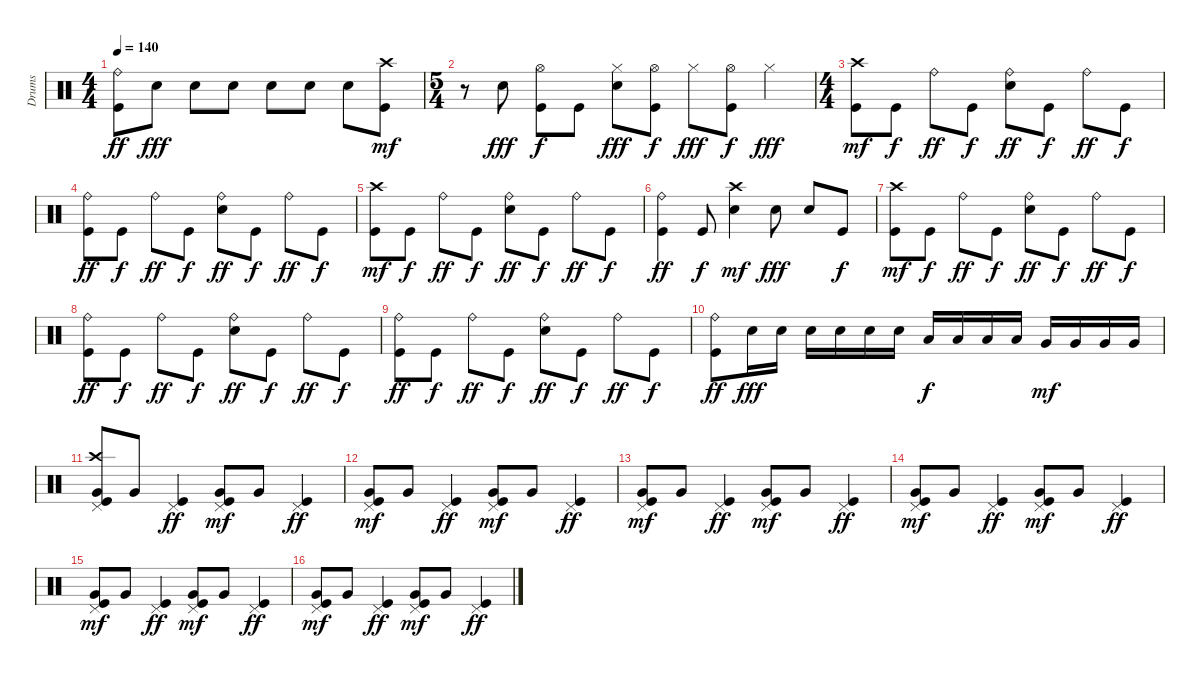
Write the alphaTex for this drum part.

\track ("Drums" "Drums") {instrument percussion}
\staff {score}
\articulation defaults
\ts (4 4)
\tempo 140
\clef neutral
\ks c
("Kick (hit)" "Ride (bell)").8{dy ff} "Electric Snare (hit)".8{dy fff} "Electric Snare (hit)".8 "Electric Snare (hit)".8 "Electric Snare (hit)".8 "Electric Snare (hit)".8 "Electric Snare (hit)".8 ("Kick (hit)" "Crash high (hit)").8{dy mf} |
\ts (5 4)
r.8 "Electric Snare (hit)".8{dy fff} ("Hi-Hat (open)" "Kick (hit)").8{dy f} "Kick (hit)".8 ("Hi-Hat (closed)" "Electric Snare (hit)").8{dy fff} ("Kick (hit)" "Hi-Hat (open)").8{dy f} "Hi-Hat (closed)".8{dy fff} ("Kick (hit)" "Hi-Hat (open)").8{dy f} "Hi-Hat (closed)".4{dy fff} |
\ts (4 4)
("Kick (hit)" "Crash high (hit)").8{dy mf} "Kick (hit)".8{dy f} "Ride (bell)".8{dy ff} "Kick (hit)".8{dy f} ("Electric Snare (hit)" "Ride (bell)").8{dy ff} "Kick (hit)".8{dy f} "Ride (bell)".8{dy ff} "Kick (hit)".8{dy f} |
("Kick (hit)" "Ride (bell)").8{dy ff} "Kick (hit)".8{dy f} "Ride (bell)".8{dy ff} "Kick (hit)".8{dy f} ("Electric Snare (hit)" "Ride (bell)").8{dy ff} "Kick (hit)".8{dy f} "Ride (bell)".8{dy ff} "Kick (hit)".8{dy f} |
("Kick (hit)" "Crash high (hit)").8{dy mf} "Kick (hit)".8{dy f} "Ride (bell)".8{dy ff} "Kick (hit)".8{dy f} ("Electric Snare (hit)" "Ride (bell)").8{dy ff} "Kick (hit)".8{dy f} "Ride (bell)".8{dy ff} "Kick (hit)".8{dy f} |
("Ride (bell)" "Kick (hit)").4{dy ff} "Kick (hit)".8{dy f} ("Electric Snare (hit)" "Crash high (hit)").4{dy mf} "Electric Snare (hit)".8{dy fff} "Electric Snare (hit)".8 "Kick (hit)".8{dy f} |
("Kick (hit)" "Crash high (hit)").8{dy mf} "Kick (hit)".8{dy f} "Ride (bell)".8{dy ff} "Kick (hit)".8{dy f} ("Electric Snare (hit)" "Ride (bell)").8{dy ff} "Kick (hit)".8{dy f} "Ride (bell)".8{dy ff} "Kick (hit)".8{dy f} |
("Kick (hit)" "Ride (bell)").8{dy ff} "Kick (hit)".8{dy f} "Ride (bell)".8{dy ff} "Kick (hit)".8{dy f} ("Electric Snare (hit)" "Ride (bell)").8{dy ff} "Kick (hit)".8{dy f} "Ride (bell)".8{dy ff} "Kick (hit)".8{dy f} |
("Kick (hit)" "Ride (bell)").8{dy ff} "Kick (hit)".8{dy f} "Ride (bell)".8{dy ff} "Kick (hit)".8{dy f} ("Electric Snare (hit)" "Ride (bell)").8{dy ff} "Kick (hit)".8{dy f} "Ride (bell)".8{dy ff} "Kick (hit)".8{dy f} |
("Kick (hit)" "Ride (bell)").8{dy ff} "Electric Snare (hit)".16{dy fff} "Electric Snare (hit)".16 "Electric Snare (hit)".16 "Electric Snare (hit)".16 "Electric Snare (hit)".16 "Electric Snare (hit)".16 "Low Tom (hit)".16{dy f} "Low Tom (hit)".16 "Low Tom (hit)".16 "Low Tom (hit)".16 "Very Low Tom (hit)".16{dy mf} "Very Low Tom (hit)".16 "Very Low Tom (hit)".16 "Very Low Tom (hit)".16 |
("Pedal Hi-Hat (hit)" "Kick (hit)" "Very Low Tom (hit)" "Crash high (hit)").8 "Very Low Tom (hit)".8 ("Pedal Hi-Hat (hit)" "Kick (hit)").4{dy ff} ("Pedal Hi-Hat (hit)" "Kick (hit)" "Very Low Tom (hit)").8{dy mf} "Very Low Tom (hit)".8 ("Pedal Hi-Hat (hit)" "Kick (hit)").4{dy ff} |
("Pedal Hi-Hat (hit)" "Kick (hit)" "Very Low Tom (hit)").8{dy mf} "Very Low Tom (hit)".8 ("Pedal Hi-Hat (hit)" "Kick (hit)").4{dy ff} ("Pedal Hi-Hat (hit)" "Kick (hit)" "Very Low Tom (hit)").8{dy mf} "Very Low Tom (hit)".8 ("Pedal Hi-Hat (hit)" "Kick (hit)").4{dy ff} |
("Pedal Hi-Hat (hit)" "Kick (hit)" "Very Low Tom (hit)").8{dy mf} "Very Low Tom (hit)".8 ("Pedal Hi-Hat (hit)" "Kick (hit)").4{dy ff} ("Pedal Hi-Hat (hit)" "Kick (hit)" "Very Low Tom (hit)").8{dy mf} "Very Low Tom (hit)".8 ("Pedal Hi-Hat (hit)" "Kick (hit)").4{dy ff} |
("Pedal Hi-Hat (hit)" "Kick (hit)" "Very Low Tom (hit)").8{dy mf} "Very Low Tom (hit)".8 ("Pedal Hi-Hat (hit)" "Kick (hit)").4{dy ff} ("Pedal Hi-Hat (hit)" "Kick (hit)" "Very Low Tom (hit)").8{dy mf} "Very Low Tom (hit)".8 ("Pedal Hi-Hat (hit)" "Kick (hit)").4{dy ff} |
("Pedal Hi-Hat (hit)" "Kick (hit)" "Very Low Tom (hit)").8{dy mf} "Very Low Tom (hit)".8 ("Pedal Hi-Hat (hit)" "Kick (hit)").4{dy ff} ("Pedal Hi-Hat (hit)" "Kick (hit)" "Very Low Tom (hit)").8{dy mf} "Very Low Tom (hit)".8 ("Pedal Hi-Hat (hit)" "Kick (hit)").4{dy ff} |
("Pedal Hi-Hat (hit)" "Kick (hit)" "Very Low Tom (hit)").8{dy mf} "Very Low Tom (hit)".8 ("Pedal Hi-Hat (hit)" "Kick (hit)").4{dy ff} ("Pedal Hi-Hat (hit)" "Kick (hit)" "Very Low Tom (hit)").8{dy mf} "Very Low Tom (hit)".8 ("Pedal Hi-Hat (hit)" "Kick (hit)").4{dy ff}
